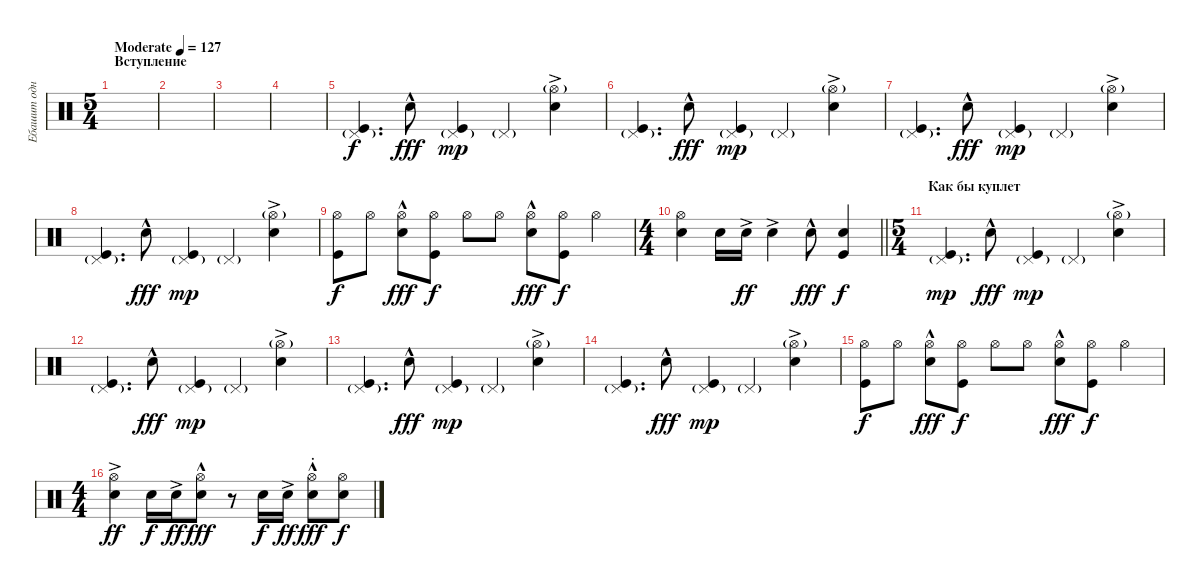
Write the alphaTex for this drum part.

\track ("Ебашит однако" "Ебашит одн") {instrument percussion}
\staff {score}
\articulation defaults
\ts (5 4)
\section ("" "Вступление")
\tempo (127 "Moderate")
\clef neutral
\ks c
|
|
|
|
("Kick (hit)" "Pedal Hi-Hat (hit)"{g}).4{d} "Electric Snare (hit)"{hac}.8{dy fff} ("Kick (hit)" "Pedal Hi-Hat (hit)"{g}).4{dy mp} "Pedal Hi-Hat (hit)"{g}.4 ("Electric Snare (hit)"{ac} "Hi-Hat (open)"{g}).4 |
("Kick (hit)" "Pedal Hi-Hat (hit)"{g}).4{d} "Electric Snare (hit)"{hac}.8{dy fff} ("Kick (hit)" "Pedal Hi-Hat (hit)"{g}).4{dy mp} "Pedal Hi-Hat (hit)"{g}.4 ("Electric Snare (hit)"{ac} "Hi-Hat (open)"{g}).4 |
("Kick (hit)" "Pedal Hi-Hat (hit)"{g}).4{d} "Electric Snare (hit)"{hac}.8{dy fff} ("Kick (hit)" "Pedal Hi-Hat (hit)"{g}).4{dy mp} "Pedal Hi-Hat (hit)"{g}.4 ("Electric Snare (hit)"{ac} "Hi-Hat (open)"{g}).4 |
("Kick (hit)" "Pedal Hi-Hat (hit)"{g}).4{d} "Electric Snare (hit)"{hac}.8{dy fff} ("Kick (hit)" "Pedal Hi-Hat (hit)"{g}).4{dy mp} "Pedal Hi-Hat (hit)"{g}.4 ("Electric Snare (hit)"{ac} "Hi-Hat (open)"{g}).4 |
("Kick (hit)" "Hi-Hat (open)").8{dy f} "Hi-Hat (open)".8 ("Electric Snare (hit)"{hac} "Hi-Hat (open)").8{dy fff} ("Kick (hit)" "Hi-Hat (open)").8{dy f} "Hi-Hat (open)".8 "Hi-Hat (open)".8 ("Electric Snare (hit)"{hac} "Hi-Hat (open)").8{dy fff} ("Kick (hit)" "Hi-Hat (open)").8{dy f} "Hi-Hat (open)".4 |
\ts (4 4)
\barLineRight lightlight
("Electric Snare (hit)" "Hi-Hat (open)").4 "Electric Snare (hit)".16 "Electric Snare (hit)"{ac}.16{dy ff} "Electric Snare (hit)"{ac}.4 "Electric Snare (hit)"{hac}.8{dy fff} ("Electric Snare (hit)" "Kick (hit)").4{dy f} |
\ts (5 4)
\section ("" "Как бы куплет")
("Kick (hit)" "Pedal Hi-Hat (hit)"{g}).4{d dy mp} "Electric Snare (hit)"{hac}.8{dy fff} ("Kick (hit)" "Pedal Hi-Hat (hit)"{g}).4{dy mp} "Pedal Hi-Hat (hit)"{g}.4 ("Electric Snare (hit)"{ac} "Hi-Hat (open)"{g}).4 |
("Kick (hit)" "Pedal Hi-Hat (hit)"{g}).4{d} "Electric Snare (hit)"{hac}.8{dy fff} ("Kick (hit)" "Pedal Hi-Hat (hit)"{g}).4{dy mp} "Pedal Hi-Hat (hit)"{g}.4 ("Electric Snare (hit)"{ac} "Hi-Hat (open)"{g}).4 |
("Kick (hit)" "Pedal Hi-Hat (hit)"{g}).4{d} "Electric Snare (hit)"{hac}.8{dy fff} ("Kick (hit)" "Pedal Hi-Hat (hit)"{g}).4{dy mp} "Pedal Hi-Hat (hit)"{g}.4 ("Electric Snare (hit)"{ac} "Hi-Hat (open)"{g}).4 |
("Kick (hit)" "Pedal Hi-Hat (hit)"{g}).4{d} "Electric Snare (hit)"{hac}.8{dy fff} ("Kick (hit)" "Pedal Hi-Hat (hit)"{g}).4{dy mp} "Pedal Hi-Hat (hit)"{g}.4 ("Electric Snare (hit)"{ac} "Hi-Hat (open)"{g}).4 |
("Kick (hit)" "Hi-Hat (open)").8{dy f} "Hi-Hat (open)".8 ("Electric Snare (hit)"{hac} "Hi-Hat (open)").8{dy fff} ("Kick (hit)" "Hi-Hat (open)").8{dy f} "Hi-Hat (open)".8 "Hi-Hat (open)".8 ("Electric Snare (hit)"{hac} "Hi-Hat (open)").8{dy fff} ("Kick (hit)" "Hi-Hat (open)").8{dy f} "Hi-Hat (open)".4 |
\ts (4 4)
("Electric Snare (hit)"{ac} "Hi-Hat (open)").4{dy ff} "Electric Snare (hit)".16{dy f} "Electric Snare (hit)"{ac}.16{dy ff} ("Electric Snare (hit)"{hac} "Hi-Hat (open)").8{dy fff} r.8 "Electric Snare (hit)".16{dy f} "Electric Snare (hit)"{ac}.16{dy ff} ("Electric Snare (hit)"{hac} "Hi-Hat (open)"{st}).8{dy fff} ("Electric Snare (hit)" "Hi-Hat (open)").8{dy f}
